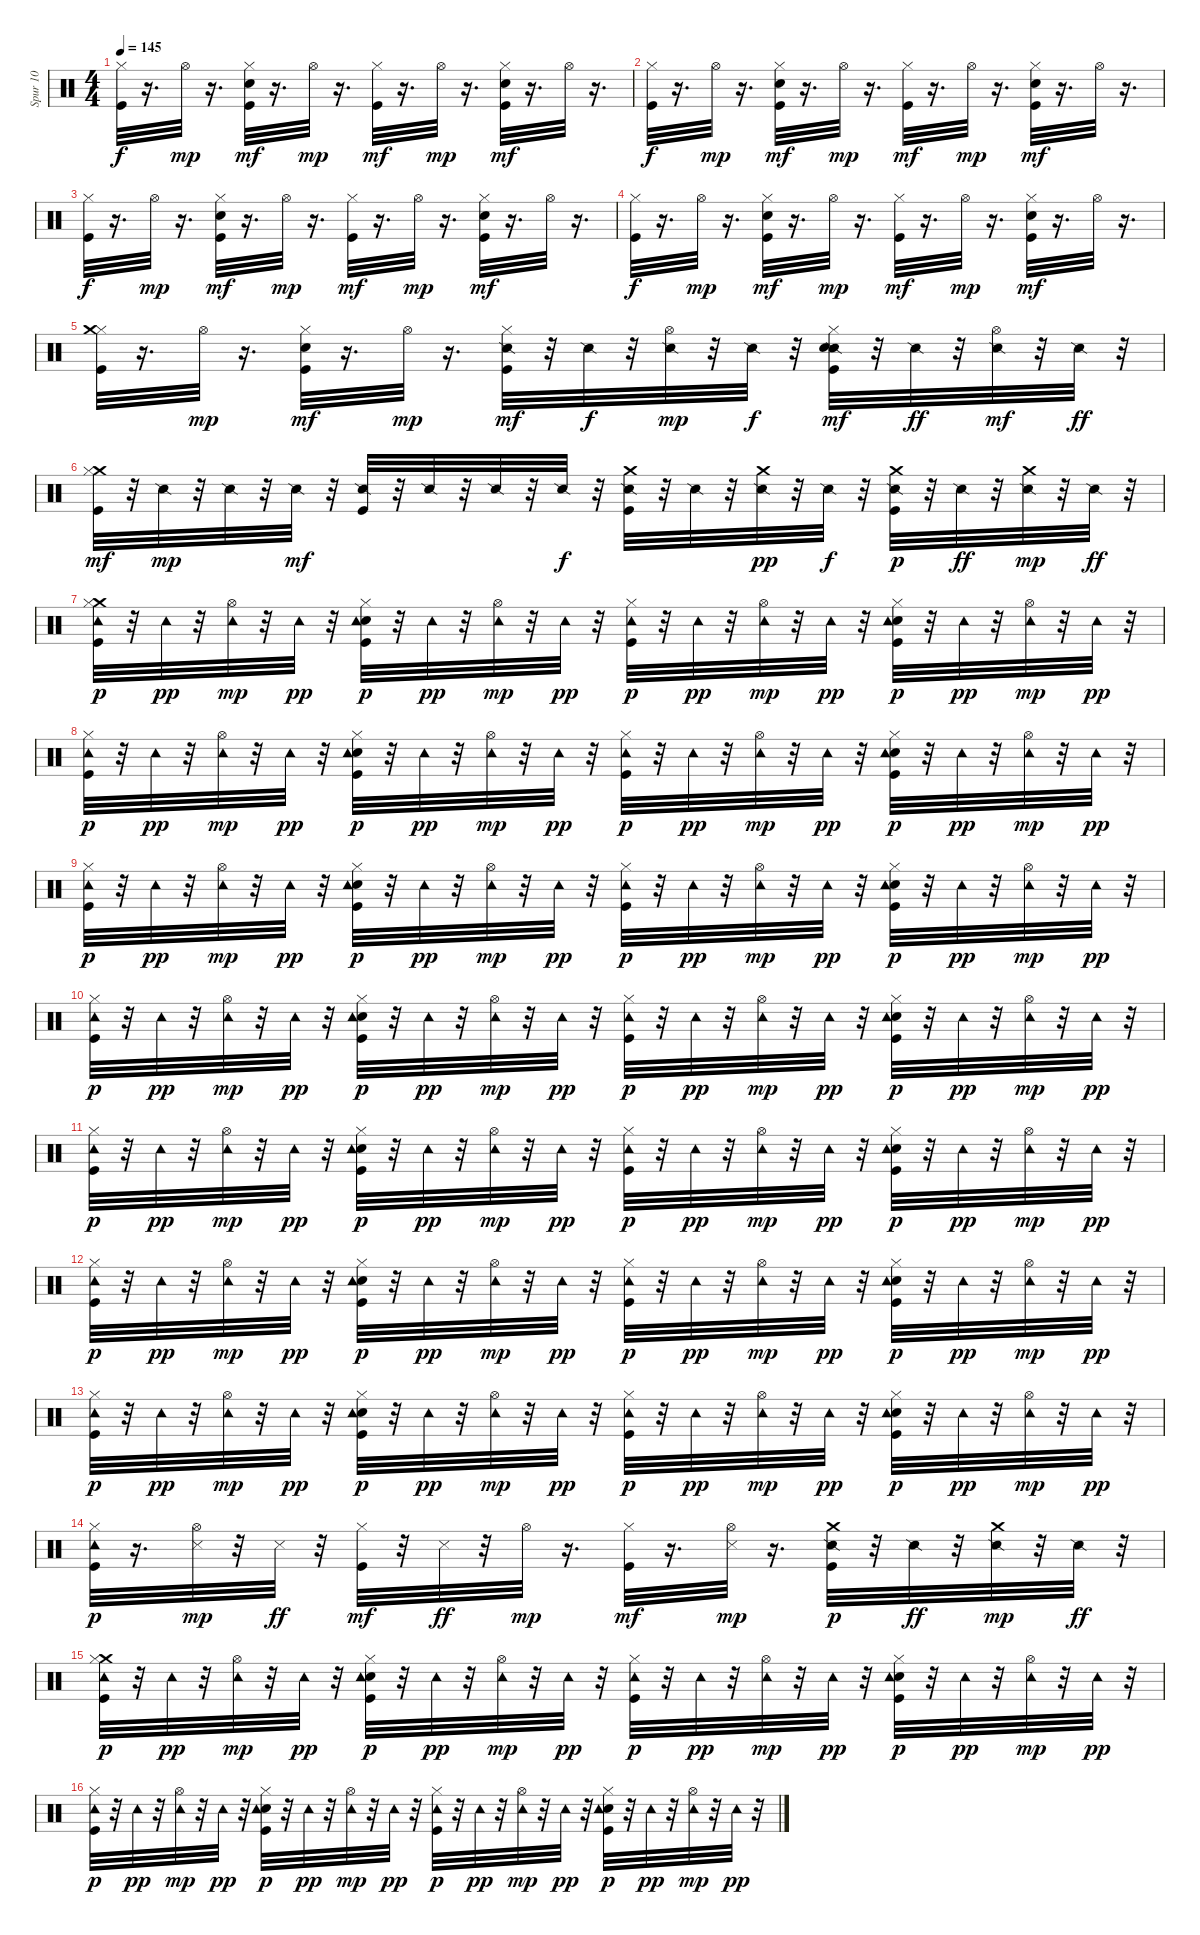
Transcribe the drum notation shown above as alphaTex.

\track ("Spur 10" "Spur 10") {instrument percussion}
\staff {score}
\articulation defaults
\ts (4 4)
\tempo 145
\clef neutral
\ks c
("Kick (hit)" "Hi-Hat (closed)").32{dy f} r.16{d} "Hi-Hat (open)".32{dy mp} r.16{d} ("Kick (hit)" "Snare (hit) 2" "Hi-Hat (closed)").32{dy mf} r.16{d} "Hi-Hat (open)".32{dy mp} r.16{d} ("Kick (hit)" "Hi-Hat (closed)").32{dy mf} r.16{d} "Hi-Hat (open)".32{dy mp} r.16{d} ("Kick (hit)" "Snare (hit) 2" "Hi-Hat (closed)").32{dy mf} r.16{d} "Hi-Hat (open)".32 r.16{d} |
("Kick (hit)" "Hi-Hat (closed)").32{dy f} r.16{d} "Hi-Hat (open)".32{dy mp} r.16{d} ("Kick (hit)" "Snare (hit) 2" "Hi-Hat (closed)").32{dy mf} r.16{d} "Hi-Hat (open)".32{dy mp} r.16{d} ("Kick (hit)" "Hi-Hat (closed)").32{dy mf} r.16{d} "Hi-Hat (open)".32{dy mp} r.16{d} ("Kick (hit)" "Snare (hit) 2" "Hi-Hat (closed)").32{dy mf} r.16{d} "Hi-Hat (open)".32 r.16{d} |
("Kick (hit)" "Hi-Hat (closed)").32{dy f} r.16{d} "Hi-Hat (open)".32{dy mp} r.16{d} ("Kick (hit)" "Snare (hit) 2" "Hi-Hat (closed)").32{dy mf} r.16{d} "Hi-Hat (open)".32{dy mp} r.16{d} ("Kick (hit)" "Hi-Hat (closed)").32{dy mf} r.16{d} "Hi-Hat (open)".32{dy mp} r.16{d} ("Kick (hit)" "Snare (hit) 2" "Hi-Hat (closed)").32{dy mf} r.16{d} "Hi-Hat (open)".32 r.16{d} |
("Kick (hit)" "Hi-Hat (closed)").32{dy f} r.16{d} "Hi-Hat (open)".32{dy mp} r.16{d} ("Kick (hit)" "Snare (hit) 2" "Hi-Hat (closed)").32{dy mf} r.16{d} "Hi-Hat (open)".32{dy mp} r.16{d} ("Kick (hit)" "Hi-Hat (closed)").32{dy mf} r.16{d} "Hi-Hat (open)".32{dy mp} r.16{d} ("Kick (hit)" "Snare (hit) 2" "Hi-Hat (closed)").32{dy mf} r.16{d} "Hi-Hat (open)".32 r.16{d} |
("Kick (hit)" "Hi-Hat (closed)" "Crash medium (hit)").32 r.16{d} "Hi-Hat (open)".32{dy mp} r.16{d} ("Kick (hit)" "Snare (hit) 2" "Hi-Hat (closed)").32{dy mf} r.16{d} "Hi-Hat (open)".32{dy mp} r.16{d} ("Snare (side stick) 2" "Kick (hit)" "Hi-Hat (closed)").32{dy mf} r.32 "Snare (side stick) 2".32{dy f} r.32 ("Snare (side stick) 2" "Hi-Hat (open)").32{dy mp balance 11} r.32 "Snare (side stick) 2".32{dy f} r.32 ("Snare (side stick) 2" "Kick (hit)" "Snare (hit) 2" "Hi-Hat (closed)").32{dy mf balance 8} r.32 "Snare (side stick) 2".32{dy ff} r.32 ("Snare (side stick) 2" "Hi-Hat (open)").32{dy mf balance 4} r.32 "Snare (side stick) 2".32{dy ff} r.32 |
("Crash medium (hit)" "Kick (hit)" "Hi-Hat (closed)").32{dy mf balance 8} r.32 "Snare (side stick) 2".32{dy mp} r.32 "Snare (side stick) 2".32 r.32 "Snare (side stick) 2".32{dy mf} r.32 ("Snare (side stick) 2" "Kick (hit)").32 r.32 "Snare (side stick) 2".32 r.32 "Snare (side stick) 2".32 r.32 "Snare (side stick) 2".32{dy f} r.32 ("Snare (side stick) 2" "Kick (hit)" "Crash medium (hit)").32{balance 10} r.32 "Snare (side stick) 2".32 r.32 ("Snare (side stick) 2" "Crash medium (hit)").32{dy pp balance 14} r.32 "Snare (side stick) 2".32{dy f} r.32 ("Snare (side stick) 2" "Kick (hit)" "Crash medium (hit)").32{dy p balance 7} r.32 "Snare (side stick) 2".32{dy ff} r.32 ("Snare (side stick) 2" "Crash medium (hit)").32{dy mp balance 0} r.32 "Snare (side stick) 2".32{dy ff} r.32 |
("Crash medium (hit)" "Kick (hit)" "Hi-Hat (closed)" "Tambourine (hit)").32{dy p balance 8} r.32 "Tambourine (hit)".32{dy pp} r.32 ("Hi-Hat (open)" "Tambourine (hit)").32{dy mp} r.32 "Tambourine (hit)".32{dy pp} r.32 ("Kick (hit)" "Snare (hit) 2" "Hi-Hat (closed)" "Tambourine (hit)").32{dy p} r.32 "Tambourine (hit)".32{dy pp} r.32 ("Hi-Hat (open)" "Tambourine (hit)").32{dy mp} r.32 "Tambourine (hit)".32{dy pp} r.32 ("Kick (hit)" "Hi-Hat (closed)" "Tambourine (hit)").32{dy p} r.32 "Tambourine (hit)".32{dy pp} r.32 ("Hi-Hat (open)" "Tambourine (hit)").32{dy mp} r.32 "Tambourine (hit)".32{dy pp} r.32 ("Kick (hit)" "Snare (hit) 2" "Hi-Hat (closed)" "Tambourine (hit)").32{dy p} r.32 "Tambourine (hit)".32{dy pp} r.32 ("Hi-Hat (open)" "Tambourine (hit)").32{dy mp} r.32 "Tambourine (hit)".32{dy pp} r.32 |
("Kick (hit)" "Hi-Hat (closed)" "Tambourine (hit)").32{dy p} r.32 "Tambourine (hit)".32{dy pp} r.32 ("Hi-Hat (open)" "Tambourine (hit)").32{dy mp} r.32 "Tambourine (hit)".32{dy pp} r.32 ("Kick (hit)" "Snare (hit) 2" "Hi-Hat (closed)" "Tambourine (hit)").32{dy p} r.32 "Tambourine (hit)".32{dy pp} r.32 ("Hi-Hat (open)" "Tambourine (hit)").32{dy mp} r.32 "Tambourine (hit)".32{dy pp} r.32 ("Kick (hit)" "Hi-Hat (closed)" "Tambourine (hit)").32{dy p} r.32 "Tambourine (hit)".32{dy pp} r.32 ("Hi-Hat (open)" "Tambourine (hit)").32{dy mp} r.32 "Tambourine (hit)".32{dy pp} r.32 ("Kick (hit)" "Snare (hit) 2" "Hi-Hat (closed)" "Tambourine (hit)").32{dy p} r.32 "Tambourine (hit)".32{dy pp} r.32 ("Hi-Hat (open)" "Tambourine (hit)").32{dy mp} r.32 "Tambourine (hit)".32{dy pp} r.32 |
("Kick (hit)" "Hi-Hat (closed)" "Tambourine (hit)").32{dy p} r.32 "Tambourine (hit)".32{dy pp} r.32 ("Hi-Hat (open)" "Tambourine (hit)").32{dy mp} r.32 "Tambourine (hit)".32{dy pp} r.32 ("Kick (hit)" "Snare (hit) 2" "Hi-Hat (closed)" "Tambourine (hit)").32{dy p} r.32 "Tambourine (hit)".32{dy pp} r.32 ("Hi-Hat (open)" "Tambourine (hit)").32{dy mp} r.32 "Tambourine (hit)".32{dy pp} r.32 ("Kick (hit)" "Hi-Hat (closed)" "Tambourine (hit)").32{dy p} r.32 "Tambourine (hit)".32{dy pp} r.32 ("Hi-Hat (open)" "Tambourine (hit)").32{dy mp} r.32 "Tambourine (hit)".32{dy pp} r.32 ("Kick (hit)" "Snare (hit) 2" "Hi-Hat (closed)" "Tambourine (hit)").32{dy p} r.32 "Tambourine (hit)".32{dy pp} r.32 ("Hi-Hat (open)" "Tambourine (hit)").32{dy mp} r.32 "Tambourine (hit)".32{dy pp} r.32 |
("Kick (hit)" "Hi-Hat (closed)" "Tambourine (hit)").32{dy p} r.32 "Tambourine (hit)".32{dy pp} r.32 ("Hi-Hat (open)" "Tambourine (hit)").32{dy mp} r.32 "Tambourine (hit)".32{dy pp} r.32 ("Kick (hit)" "Snare (hit) 2" "Hi-Hat (closed)" "Tambourine (hit)").32{dy p} r.32 "Tambourine (hit)".32{dy pp} r.32 ("Hi-Hat (open)" "Tambourine (hit)").32{dy mp} r.32 "Tambourine (hit)".32{dy pp} r.32 ("Kick (hit)" "Hi-Hat (closed)" "Tambourine (hit)").32{dy p} r.32 "Tambourine (hit)".32{dy pp} r.32 ("Hi-Hat (open)" "Tambourine (hit)").32{dy mp} r.32 "Tambourine (hit)".32{dy pp} r.32 ("Kick (hit)" "Snare (hit) 2" "Hi-Hat (closed)" "Tambourine (hit)").32{dy p} r.32 "Tambourine (hit)".32{dy pp} r.32 ("Hi-Hat (open)" "Tambourine (hit)").32{dy mp} r.32 "Tambourine (hit)".32{dy pp} r.32 |
("Kick (hit)" "Hi-Hat (closed)" "Tambourine (hit)").32{dy p} r.32 "Tambourine (hit)".32{dy pp} r.32 ("Hi-Hat (open)" "Tambourine (hit)").32{dy mp} r.32 "Tambourine (hit)".32{dy pp} r.32 ("Kick (hit)" "Snare (hit) 2" "Hi-Hat (closed)" "Tambourine (hit)").32{dy p} r.32 "Tambourine (hit)".32{dy pp} r.32 ("Hi-Hat (open)" "Tambourine (hit)").32{dy mp} r.32 "Tambourine (hit)".32{dy pp} r.32 ("Kick (hit)" "Hi-Hat (closed)" "Tambourine (hit)").32{dy p} r.32 "Tambourine (hit)".32{dy pp} r.32 ("Hi-Hat (open)" "Tambourine (hit)").32{dy mp} r.32 "Tambourine (hit)".32{dy pp} r.32 ("Kick (hit)" "Snare (hit) 2" "Hi-Hat (closed)" "Tambourine (hit)").32{dy p} r.32 "Tambourine (hit)".32{dy pp} r.32 ("Hi-Hat (open)" "Tambourine (hit)").32{dy mp} r.32 "Tambourine (hit)".32{dy pp} r.32 |
("Kick (hit)" "Hi-Hat (closed)" "Tambourine (hit)").32{dy p} r.32 "Tambourine (hit)".32{dy pp} r.32 ("Hi-Hat (open)" "Tambourine (hit)").32{dy mp} r.32 "Tambourine (hit)".32{dy pp} r.32 ("Kick (hit)" "Snare (hit) 2" "Hi-Hat (closed)" "Tambourine (hit)").32{dy p} r.32 "Tambourine (hit)".32{dy pp} r.32 ("Hi-Hat (open)" "Tambourine (hit)").32{dy mp} r.32 "Tambourine (hit)".32{dy pp} r.32 ("Kick (hit)" "Hi-Hat (closed)" "Tambourine (hit)").32{dy p} r.32 "Tambourine (hit)".32{dy pp} r.32 ("Hi-Hat (open)" "Tambourine (hit)").32{dy mp} r.32 "Tambourine (hit)".32{dy pp} r.32 ("Kick (hit)" "Snare (hit) 2" "Hi-Hat (closed)" "Tambourine (hit)").32{dy p} r.32 "Tambourine (hit)".32{dy pp} r.32 ("Hi-Hat (open)" "Tambourine (hit)").32{dy mp} r.32 "Tambourine (hit)".32{dy pp} r.32 |
("Kick (hit)" "Hi-Hat (closed)" "Tambourine (hit)").32{dy p} r.32 "Tambourine (hit)".32{dy pp} r.32 ("Hi-Hat (open)" "Tambourine (hit)").32{dy mp} r.32 "Tambourine (hit)".32{dy pp} r.32 ("Kick (hit)" "Snare (hit) 2" "Hi-Hat (closed)" "Tambourine (hit)").32{dy p} r.32 "Tambourine (hit)".32{dy pp} r.32 ("Hi-Hat (open)" "Tambourine (hit)").32{dy mp} r.32 "Tambourine (hit)".32{dy pp} r.32 ("Kick (hit)" "Hi-Hat (closed)" "Tambourine (hit)").32{dy p} r.32 "Tambourine (hit)".32{dy pp} r.32 ("Hi-Hat (open)" "Tambourine (hit)").32{dy mp} r.32 "Tambourine (hit)".32{dy pp} r.32 ("Kick (hit)" "Snare (hit) 2" "Hi-Hat (closed)" "Tambourine (hit)").32{dy p} r.32 "Tambourine (hit)".32{dy pp} r.32 ("Hi-Hat (open)" "Tambourine (hit)").32{dy mp} r.32 "Tambourine (hit)".32{dy pp} r.32 |
("Kick (hit)" "Hi-Hat (closed)" "Tambourine (hit)").32{dy p} r.16{d} ("Snare (side stick) 3" "Hi-Hat (open)").32{dy mp} r.32 "Snare (side stick) 3".32{dy ff} r.32 ("Kick (hit)" "Hi-Hat (closed)").32{dy mf} r.32 "Snare (side stick) 3".32{dy ff} r.32 "Hi-Hat (open)".32{dy mp} r.16{d} ("Kick (hit)" "Hi-Hat (closed)").32{dy mf} r.16{d} ("Snare (side stick) 3" "Hi-Hat (open)").32{dy mp} r.16{d} ("Snare (side stick) 2" "Kick (hit)" "Crash medium (hit)").32{dy p balance 7} r.32 "Snare (side stick) 2".32{dy ff} r.32 ("Snare (side stick) 2" "Crash medium (hit)").32{dy mp balance 0} r.32 "Snare (side stick) 2".32{dy ff} r.32 |
("Crash medium (hit)" "Kick (hit)" "Hi-Hat (closed)" "Tambourine (hit)").32{dy p balance 8} r.32 "Tambourine (hit)".32{dy pp} r.32 ("Hi-Hat (open)" "Tambourine (hit)").32{dy mp} r.32 "Tambourine (hit)".32{dy pp} r.32 ("Kick (hit)" "Snare (hit) 2" "Hi-Hat (closed)" "Tambourine (hit)").32{dy p} r.32 "Tambourine (hit)".32{dy pp} r.32 ("Hi-Hat (open)" "Tambourine (hit)").32{dy mp} r.32 "Tambourine (hit)".32{dy pp} r.32 ("Kick (hit)" "Hi-Hat (closed)" "Tambourine (hit)").32{dy p} r.32 "Tambourine (hit)".32{dy pp} r.32 ("Hi-Hat (open)" "Tambourine (hit)").32{dy mp} r.32 "Tambourine (hit)".32{dy pp} r.32 ("Kick (hit)" "Snare (hit) 2" "Hi-Hat (closed)" "Tambourine (hit)").32{dy p} r.32 "Tambourine (hit)".32{dy pp} r.32 ("Hi-Hat (open)" "Tambourine (hit)").32{dy mp} r.32 "Tambourine (hit)".32{dy pp} r.32 |
("Kick (hit)" "Hi-Hat (closed)" "Tambourine (hit)").32{dy p} r.32 "Tambourine (hit)".32{dy pp} r.32 ("Hi-Hat (open)" "Tambourine (hit)").32{dy mp} r.32 "Tambourine (hit)".32{dy pp} r.32 ("Kick (hit)" "Snare (hit) 2" "Hi-Hat (closed)" "Tambourine (hit)").32{dy p} r.32 "Tambourine (hit)".32{dy pp} r.32 ("Hi-Hat (open)" "Tambourine (hit)").32{dy mp} r.32 "Tambourine (hit)".32{dy pp} r.32 ("Kick (hit)" "Hi-Hat (closed)" "Tambourine (hit)").32{dy p} r.32 "Tambourine (hit)".32{dy pp} r.32 ("Hi-Hat (open)" "Tambourine (hit)").32{dy mp} r.32 "Tambourine (hit)".32{dy pp} r.32 ("Kick (hit)" "Snare (hit) 2" "Hi-Hat (closed)" "Tambourine (hit)").32{dy p} r.32 "Tambourine (hit)".32{dy pp} r.32 ("Hi-Hat (open)" "Tambourine (hit)").32{dy mp} r.32 "Tambourine (hit)".32{dy pp} r.32
